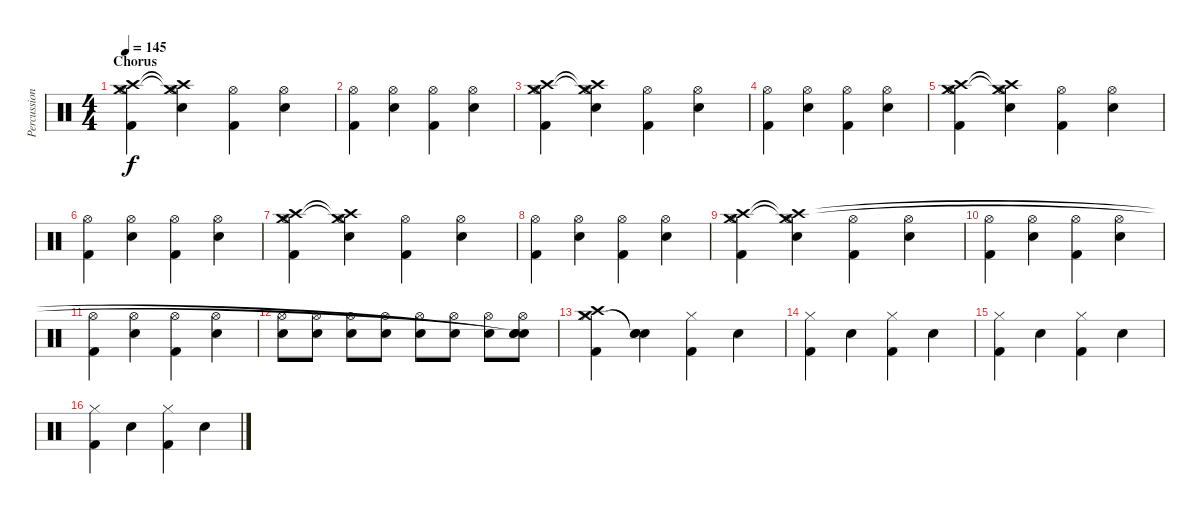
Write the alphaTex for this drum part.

\track ("Percussions" "Percussion") {instrument percussion}
\staff {score}
\articulation defaults
\ts (4 4)
\section ("" "Chorus")
\tempo 145
\clef neutral
\ks c
("Kick (hit) 2" "Hi-Hat (open)" "Crash medium (hit)" "Crash high (hit)").4{dy f} ("Snare (hit) 2" "Hi-Hat (open)" "Crash medium (hit)"{t} "Crash high (hit)"{t}).4 ("Kick (hit) 2" "Hi-Hat (open)").4 ("Snare (hit) 2" "Hi-Hat (open)").4 |
("Kick (hit) 2" "Hi-Hat (open)").4 ("Snare (hit) 2" "Hi-Hat (open)").4 ("Kick (hit) 2" "Hi-Hat (open)").4 ("Snare (hit) 2" "Hi-Hat (open)").4 |
("Kick (hit) 2" "Hi-Hat (open)" "Crash medium (hit)" "Crash high (hit)").4 ("Snare (hit) 2" "Hi-Hat (open)" "Crash medium (hit)"{t} "Crash high (hit)"{t}).4 ("Kick (hit) 2" "Hi-Hat (open)").4 ("Snare (hit) 2" "Hi-Hat (open)").4 |
("Kick (hit) 2" "Hi-Hat (open)").4 ("Snare (hit) 2" "Hi-Hat (open)").4 ("Kick (hit) 2" "Hi-Hat (open)").4 ("Snare (hit) 2" "Hi-Hat (open)").4 |
("Kick (hit) 2" "Hi-Hat (open)" "Crash medium (hit)" "Crash high (hit)").4 ("Snare (hit) 2" "Hi-Hat (open)" "Crash medium (hit)"{t} "Crash high (hit)"{t}).4 ("Kick (hit) 2" "Hi-Hat (open)").4 ("Snare (hit) 2" "Hi-Hat (open)").4 |
("Kick (hit) 2" "Hi-Hat (open)").4 ("Snare (hit) 2" "Hi-Hat (open)").4 ("Kick (hit) 2" "Hi-Hat (open)").4 ("Snare (hit) 2" "Hi-Hat (open)").4 |
("Kick (hit) 2" "Hi-Hat (open)" "Crash medium (hit)" "Crash high (hit)").4 ("Snare (hit) 2" "Hi-Hat (open)" "Crash medium (hit)"{t} "Crash high (hit)"{t}).4 ("Kick (hit) 2" "Hi-Hat (open)").4 ("Snare (hit) 2" "Hi-Hat (open)").4 |
("Kick (hit) 2" "Hi-Hat (open)").4 ("Snare (hit) 2" "Hi-Hat (open)").4 ("Kick (hit) 2" "Hi-Hat (open)").4 ("Snare (hit) 2" "Hi-Hat (open)").4 |
("Kick (hit) 2" "Hi-Hat (open)" "Crash medium (hit)" "Crash high (hit)").4 ("Snare (hit) 2" "Hi-Hat (open)" "Crash medium (hit)"{t} "Crash high (hit)"{t}).4 ("Kick (hit) 2" "Hi-Hat (open)").4 ("Snare (hit) 2" "Hi-Hat (open)").4 |
("Kick (hit) 2" "Hi-Hat (open)").4 ("Snare (hit) 2" "Hi-Hat (open)").4 ("Kick (hit) 2" "Hi-Hat (open)").4 ("Snare (hit) 2" "Hi-Hat (open)").4 |
("Kick (hit) 2" "Hi-Hat (open)").4 ("Snare (hit) 2" "Hi-Hat (open)").4 ("Kick (hit) 2" "Hi-Hat (open)").4 ("Snare (hit) 2" "Hi-Hat (open)").4 |
("Snare (hit) 2" "Hi-Hat (open)").8 ("Snare (hit) 2" "Hi-Hat (open)").8 ("Snare (hit) 2" "Hi-Hat (open)").8 ("Snare (hit) 2" "Hi-Hat (open)").8 ("Snare (hit) 2" "Hi-Hat (open)").8 ("Snare (hit) 2" "Hi-Hat (open)").8 ("Snare (hit) 2" "Hi-Hat (open)").8 ("Snare (hit) 2" "Hi-Hat (open)" "Snare (hit)"{t} "Snare (hit)"{t}).8 |
("Kick (hit) 2" "Hi-Hat (closed)" "Crash medium (hit)" "Crash high (hit)").4 ("Snare (hit) 2" "Snare (hit)"{t} "Snare (hit)"{t}).4 ("Kick (hit) 2" "Hi-Hat (closed)").4 "Snare (hit) 2".4 |
("Kick (hit) 2" "Hi-Hat (closed)").4 "Snare (hit) 2".4 ("Kick (hit) 2" "Hi-Hat (closed)").4 "Snare (hit) 2".4 |
("Kick (hit) 2" "Hi-Hat (closed)").4 "Snare (hit) 2".4 ("Kick (hit) 2" "Hi-Hat (closed)").4 "Snare (hit) 2".4 |
("Kick (hit) 2" "Hi-Hat (closed)").4 "Snare (hit) 2".4 ("Kick (hit) 2" "Hi-Hat (closed)").4 "Snare (hit) 2".4
